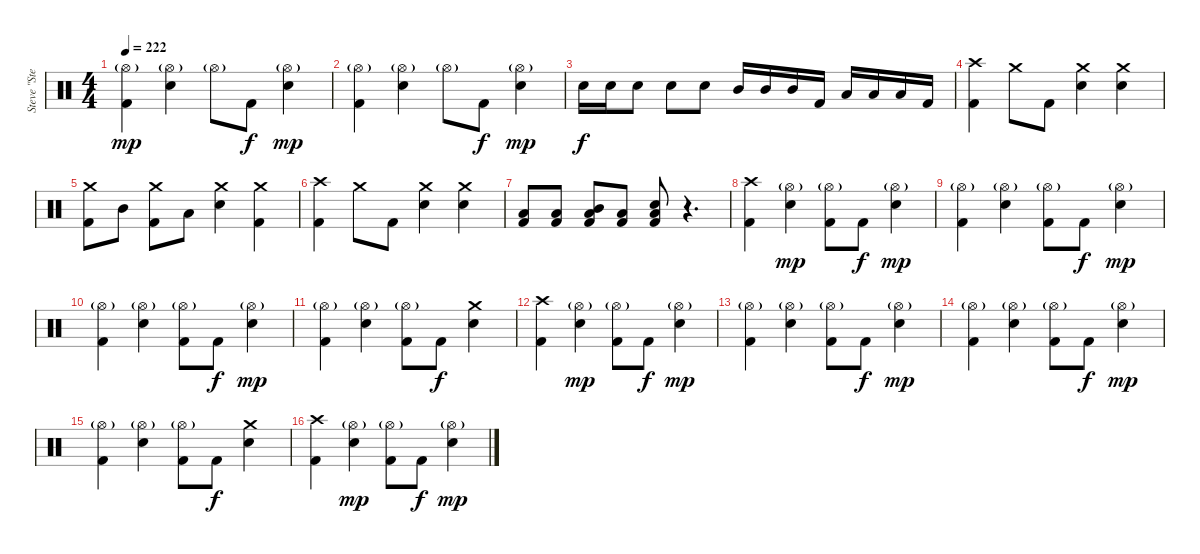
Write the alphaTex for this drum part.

\track ("Steve \"Stevo32\" Jocz " "Steve \"Ste") {instrument percussion}
\staff {score}
\articulation defaults
\ts (4 4)
\tempo 222
\clef neutral
\ks c
("Hi-Hat (open)"{g} "Kick (hit) 2").4{dy mp} ("Hi-Hat (open)"{g} "Electric Snare (hit)").4 "Hi-Hat (open)"{g}.8 "Kick (hit) 2".8{dy f} ("Hi-Hat (open)"{g} "Electric Snare (hit)").4{dy mp} |
("Hi-Hat (open)"{g} "Kick (hit) 2").4 ("Hi-Hat (open)"{g} "Electric Snare (hit)").4 "Hi-Hat (open)"{g}.8 "Kick (hit) 2".8{dy f} ("Hi-Hat (open)"{g} "Electric Snare (hit)").4{dy mp} |
"Electric Snare (hit)".16{dy f} "Electric Snare (hit)".16 "Electric Snare (hit)".8 "Electric Snare (hit)".8 "Electric Snare (hit)".8 "Mid Tom (hit)".16 "Mid Tom (hit)".16 "Mid Tom (hit)".16 "Kick (hit) 2".16 "Low Tom (hit)".16 "Low Tom (hit)".16 "Low Tom (hit)".16 "Kick (hit) 2".16 |
("Crash high (hit)" "Kick (hit) 2").4 "Crash medium (hit)".8 "Kick (hit) 2".8 ("Crash medium (hit)" "Electric Snare (hit)").4 ("Crash medium (hit)" "Electric Snare (hit)").4 |
("Crash medium (hit)" "Kick (hit) 2").8 "Mid Tom (hit)".8 ("Crash medium (hit)" "Kick (hit) 2").8 "Low Tom (hit)".8 ("Crash medium (hit)" "Electric Snare (hit)").4 ("Crash medium (hit)" "Kick (hit) 2").4 |
("Crash high (hit)" "Kick (hit) 2").4 "Crash medium (hit)".8 "Kick (hit) 2".8 ("Crash medium (hit)" "Electric Snare (hit)").4 ("Crash medium (hit)" "Electric Snare (hit)").4 |
("Low Tom (hit)" "Kick (hit) 2").8 ("Low Tom (hit)" "Kick (hit) 2").8 ("Low Tom (hit)" "Mid Tom (hit)" "Kick (hit) 2").8 ("Low Tom (hit)" "Kick (hit) 2").8 ("Low Tom (hit)" "Electric Snare (hit)" "Kick (hit) 2").8 r.4{d} |
("Crash high (hit)" "Kick (hit) 2").4 ("Hi-Hat (open)"{g} "Electric Snare (hit)").4{dy mp} ("Hi-Hat (open)"{g} "Kick (hit) 2").8 "Kick (hit) 2".8{dy f} ("Hi-Hat (open)"{g} "Electric Snare (hit)").4{dy mp} |
("Hi-Hat (open)"{g} "Kick (hit) 2").4 ("Hi-Hat (open)"{g} "Electric Snare (hit)").4 ("Hi-Hat (open)"{g} "Kick (hit) 2").8 "Kick (hit) 2".8{dy f} ("Hi-Hat (open)"{g} "Electric Snare (hit)").4{dy mp} |
("Hi-Hat (open)"{g} "Kick (hit) 2").4 ("Hi-Hat (open)"{g} "Electric Snare (hit)").4 ("Hi-Hat (open)"{g} "Kick (hit) 2").8 "Kick (hit) 2".8{dy f} ("Hi-Hat (open)"{g} "Electric Snare (hit)").4{dy mp} |
("Hi-Hat (open)"{g} "Kick (hit) 2").4 ("Hi-Hat (open)"{g} "Electric Snare (hit)").4 ("Hi-Hat (open)"{g} "Kick (hit) 2").8 "Kick (hit) 2".8{dy f} ("Crash medium (hit)" "Electric Snare (hit)").4 |
("Crash high (hit)" "Kick (hit) 2").4 ("Hi-Hat (open)"{g} "Electric Snare (hit)").4{dy mp} ("Hi-Hat (open)"{g} "Kick (hit) 2").8 "Kick (hit) 2".8{dy f} ("Hi-Hat (open)"{g} "Electric Snare (hit)").4{dy mp} |
("Hi-Hat (open)"{g} "Kick (hit) 2").4 ("Hi-Hat (open)"{g} "Electric Snare (hit)").4 ("Hi-Hat (open)"{g} "Kick (hit) 2").8 "Kick (hit) 2".8{dy f} ("Hi-Hat (open)"{g} "Electric Snare (hit)").4{dy mp} |
("Hi-Hat (open)"{g} "Kick (hit) 2").4 ("Hi-Hat (open)"{g} "Electric Snare (hit)").4 ("Hi-Hat (open)"{g} "Kick (hit) 2").8 "Kick (hit) 2".8{dy f} ("Hi-Hat (open)"{g} "Electric Snare (hit)").4{dy mp} |
("Hi-Hat (open)"{g} "Kick (hit) 2").4 ("Hi-Hat (open)"{g} "Electric Snare (hit)").4 ("Hi-Hat (open)"{g} "Kick (hit) 2").8 "Kick (hit) 2".8{dy f} ("Crash medium (hit)" "Electric Snare (hit)").4 |
("Crash high (hit)" "Kick (hit) 2").4 ("Hi-Hat (open)"{g} "Electric Snare (hit)").4{dy mp} ("Hi-Hat (open)"{g} "Kick (hit) 2").8 "Kick (hit) 2".8{dy f} ("Hi-Hat (open)"{g} "Electric Snare (hit)").4{dy mp}
